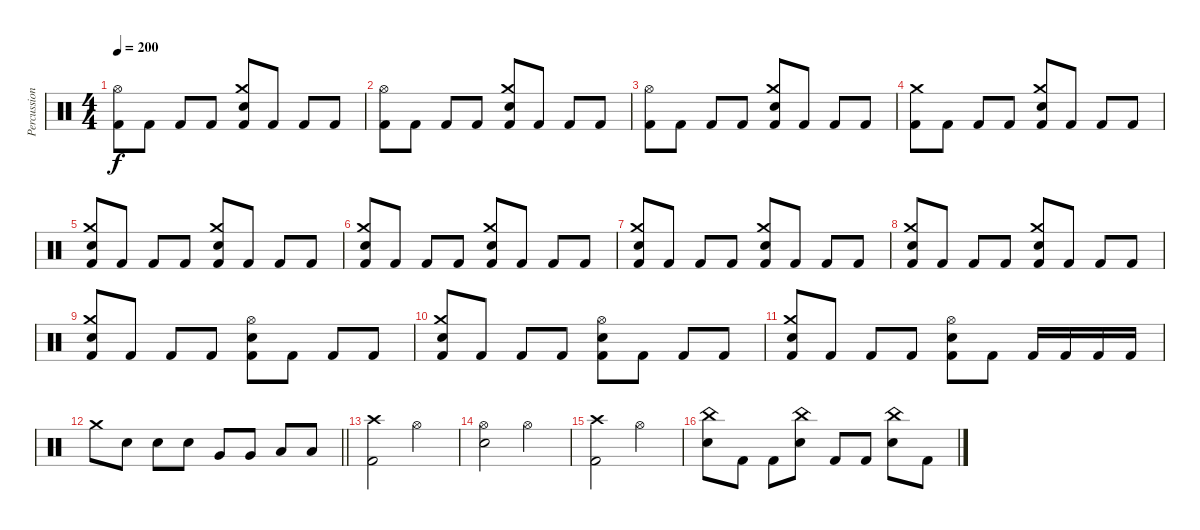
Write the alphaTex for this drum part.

\track ("Percussion" "Percussion") {instrument percussion}
\staff {score}
\articulation defaults
\ts (4 4)
\tempo 200
\clef neutral
\ks c
("Hi-Hat (open)" "Kick (hit) 2").8{dy f} "Kick (hit) 2".8 "Kick (hit) 2".8 "Kick (hit) 2".8 ("Crash medium (hit)" "Electric Snare (hit)" "Kick (hit) 2").8 "Kick (hit) 2".8 "Kick (hit) 2".8 "Kick (hit) 2".8 |
("Hi-Hat (open)" "Kick (hit) 2").8 "Kick (hit) 2".8 "Kick (hit) 2".8 "Kick (hit) 2".8 ("Crash medium (hit)" "Electric Snare (hit)" "Kick (hit) 2").8 "Kick (hit) 2".8 "Kick (hit) 2".8 "Kick (hit) 2".8 |
("Hi-Hat (open)" "Kick (hit) 2").8 "Kick (hit) 2".8 "Kick (hit) 2".8 "Kick (hit) 2".8 ("Crash medium (hit)" "Electric Snare (hit)" "Kick (hit) 2").8 "Kick (hit) 2".8 "Kick (hit) 2".8 "Kick (hit) 2".8 |
("Crash medium (hit)" "Kick (hit) 2").8 "Kick (hit) 2".8 "Kick (hit) 2".8 "Kick (hit) 2".8 ("Crash medium (hit)" "Electric Snare (hit)" "Kick (hit) 2").8 "Kick (hit) 2".8 "Kick (hit) 2".8 "Kick (hit) 2".8 |
("Crash medium (hit)" "Electric Snare (hit)" "Kick (hit) 2").8 "Kick (hit) 2".8 "Kick (hit) 2".8 "Kick (hit) 2".8 ("Crash medium (hit)" "Electric Snare (hit)" "Kick (hit) 2").8 "Kick (hit) 2".8 "Kick (hit) 2".8 "Kick (hit) 2".8 |
("Crash medium (hit)" "Electric Snare (hit)" "Kick (hit) 2").8 "Kick (hit) 2".8 "Kick (hit) 2".8 "Kick (hit) 2".8 ("Crash medium (hit)" "Electric Snare (hit)" "Kick (hit) 2").8 "Kick (hit) 2".8 "Kick (hit) 2".8 "Kick (hit) 2".8 |
("Crash medium (hit)" "Electric Snare (hit)" "Kick (hit) 2").8 "Kick (hit) 2".8 "Kick (hit) 2".8 "Kick (hit) 2".8 ("Crash medium (hit)" "Electric Snare (hit)" "Kick (hit) 2").8 "Kick (hit) 2".8 "Kick (hit) 2".8 "Kick (hit) 2".8 |
("Crash medium (hit)" "Electric Snare (hit)" "Kick (hit) 2").8 "Kick (hit) 2".8 "Kick (hit) 2".8 "Kick (hit) 2".8 ("Crash medium (hit)" "Electric Snare (hit)" "Kick (hit) 2").8 "Kick (hit) 2".8 "Kick (hit) 2".8 "Kick (hit) 2".8 |
("Crash medium (hit)" "Electric Snare (hit)" "Kick (hit) 2").8 "Kick (hit) 2".8 "Kick (hit) 2".8 "Kick (hit) 2".8 ("Hi-Hat (open)" "Electric Snare (hit)" "Kick (hit) 2").8 "Kick (hit) 2".8 "Kick (hit) 2".8 "Kick (hit) 2".8 |
("Crash medium (hit)" "Electric Snare (hit)" "Kick (hit) 2").8 "Kick (hit) 2".8 "Kick (hit) 2".8 "Kick (hit) 2".8 ("Hi-Hat (open)" "Electric Snare (hit)" "Kick (hit) 2").8 "Kick (hit) 2".8 "Kick (hit) 2".8 "Kick (hit) 2".8 |
("Crash medium (hit)" "Electric Snare (hit)" "Kick (hit) 2").8 "Kick (hit) 2".8 "Kick (hit) 2".8 "Kick (hit) 2".8 ("Hi-Hat (open)" "Electric Snare (hit)" "Kick (hit) 2").8 "Kick (hit) 2".8 "Kick (hit) 2".16 "Kick (hit) 2".16 "Kick (hit) 2".16 "Kick (hit) 2".16 |
\barLineRight lightlight "Crash medium (hit)".8 "Electric Snare (hit)".8 "Electric Snare (hit)".8 "Electric Snare (hit)".8 "Very Low Tom (hit)".8 "Very Low Tom (hit)".8 "Low Floor Tom (hit)".8 "Low Floor Tom (hit)".8
|
\section ("" "")
("Crash high (hit)" "Kick (hit) 2").2 "Hi-Hat (open)".2 |
("Hi-Hat (open)" "Electric Snare (hit)").2 "Hi-Hat (open)".2 |
("Crash high (hit)" "Kick (hit) 2").2 "Hi-Hat (open)".2 |
("China (hit)" "Electric Snare (hit)").8 "Kick (hit) 2".8 "Kick (hit) 2".8 ("China (hit)" "Electric Snare (hit)").8 "Kick (hit) 2".8 "Kick (hit) 2".8 ("China (hit)" "Electric Snare (hit)").8 "Kick (hit) 2".8
